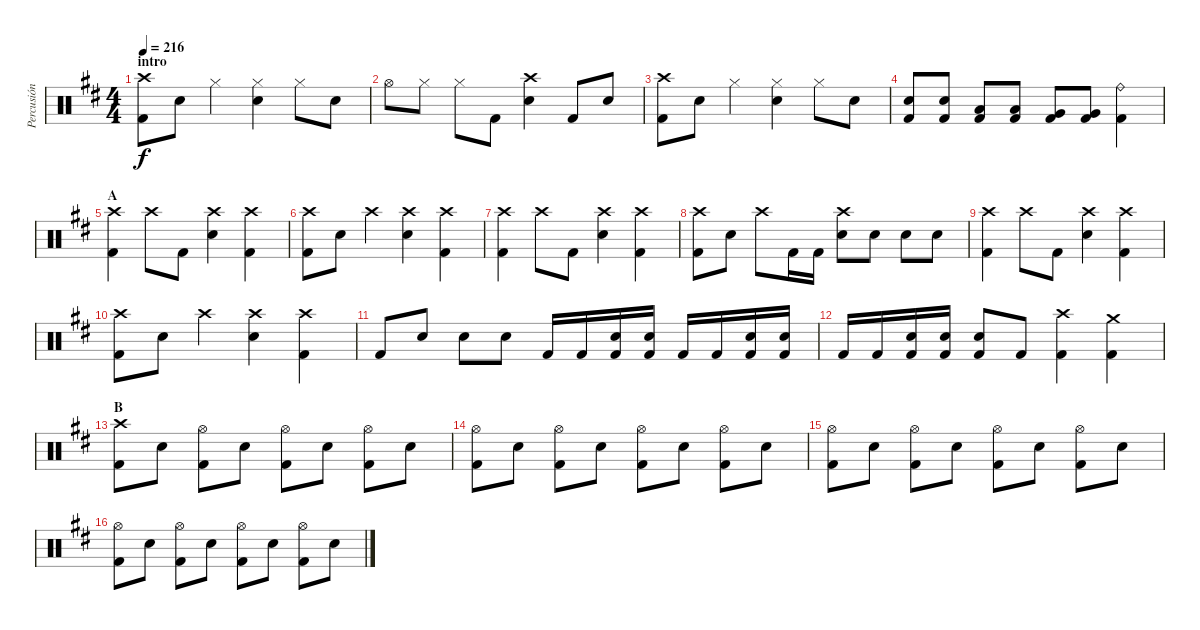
\track ("Percusión" "Percusión") {instrument percussion}
\staff {score}
\articulation defaults
\ts (4 4)
\section ("" "intro")
\tempo 216
\clef neutral
\ks d
("Crash high (hit)" "Kick (hit) 2").8{dy f} "Electric Snare (hit)".8 "Hi-Hat (closed)".4 ("Hi-Hat (closed)" "Electric Snare (hit)").4 "Hi-Hat (closed)".8 "Electric Snare (hit)".8 |
"Hi-Hat (open)".8 "Hi-Hat (closed)".8 "Hi-Hat (closed)".8 "Kick (hit) 2".8 ("Crash high (hit)" "Electric Snare (hit)").4 "Kick (hit) 2".8 "Electric Snare (hit)".8 |
("Crash high (hit)" "Kick (hit) 2").8 "Electric Snare (hit)".8 "Hi-Hat (closed)".4 ("Hi-Hat (closed)" "Electric Snare (hit)").4 "Hi-Hat (closed)".8 "Electric Snare (hit)".8 |
("Electric Snare (hit)" "Kick (hit) 2").8 ("Electric Snare (hit)" "Kick (hit) 2").8 ("Low Tom (hit)" "Kick (hit) 2").8 ("Low Tom (hit)" "Kick (hit) 2").8 ("Very Low Tom (hit)" "Kick (hit) 2").8 ("Very Low Tom (hit)" "Kick (hit) 2").8 ("Ride (bell)" "Kick (hit) 2").4 |
\section ("" "A")
("Crash high (hit)" "Kick (hit) 2").4 "Crash high (hit)".8 "Kick (hit) 2".8 ("Crash high (hit)" "Electric Snare (hit)").4 ("Crash high (hit)" "Kick (hit) 2").4 |
("Crash high (hit)" "Kick (hit) 2").8 "Electric Snare (hit)".8 "Crash high (hit)".4 ("Crash high (hit)" "Electric Snare (hit)").4 ("Crash high (hit)" "Kick (hit) 2").4 |
("Crash high (hit)" "Kick (hit) 2").4 "Crash high (hit)".8 "Kick (hit) 2".8 ("Crash high (hit)" "Electric Snare (hit)").4 ("Crash high (hit)" "Kick (hit) 2").4 |
("Crash high (hit)" "Kick (hit) 2").8 "Electric Snare (hit)".8 "Crash high (hit)".8 "Kick (hit) 2".16 "Kick (hit) 2".16 ("Crash high (hit)" "Electric Snare (hit)").8 "Electric Snare (hit)".8 "Electric Snare (hit)".8 "Electric Snare (hit)".8 |
("Crash high (hit)" "Kick (hit) 2").4 "Crash high (hit)".8 "Kick (hit) 2".8 ("Crash high (hit)" "Electric Snare (hit)").4 ("Crash high (hit)" "Kick (hit) 2").4 |
("Crash high (hit)" "Kick (hit) 2").8 "Electric Snare (hit)".8 "Crash high (hit)".4 ("Crash high (hit)" "Electric Snare (hit)").4 ("Crash high (hit)" "Kick (hit) 2").4 |
"Kick (hit) 2".8 "Electric Snare (hit)".8 "Electric Snare (hit)".8 "Electric Snare (hit)".8 "Kick (hit) 2".16 "Kick (hit) 2".16 ("Electric Snare (hit)" "Kick (hit) 2").16 ("Electric Snare (hit)" "Kick (hit) 2").16 "Kick (hit) 2".16 "Kick (hit) 2".16 ("Electric Snare (hit)" "Kick (hit) 2").16 ("Electric Snare (hit)" "Kick (hit) 2").16 |
"Kick (hit) 2".16 "Kick (hit) 2".16 ("Electric Snare (hit)" "Kick (hit) 2").16 ("Electric Snare (hit)" "Kick (hit) 2").16 ("Electric Snare (hit)" "Kick (hit) 2").8 "Kick (hit) 2".8 ("Crash high (hit)" "Kick (hit) 2").4 ("Crash medium (hit)" "Kick (hit) 2").4 |
\section ("" "B")
("Crash high (hit)" "Kick (hit) 2").8 "Electric Snare (hit)".8 ("Hi-Hat (open)" "Kick (hit) 2").8 "Electric Snare (hit)".8 ("Hi-Hat (open)" "Kick (hit) 2").8 "Electric Snare (hit)".8 ("Hi-Hat (open)" "Kick (hit) 2").8 "Electric Snare (hit)".8 |
("Hi-Hat (open)" "Kick (hit) 2").8 "Electric Snare (hit)".8 ("Hi-Hat (open)" "Kick (hit) 2").8 "Electric Snare (hit)".8 ("Hi-Hat (open)" "Kick (hit) 2").8 "Electric Snare (hit)".8 ("Hi-Hat (open)" "Kick (hit) 2").8 "Electric Snare (hit)".8 |
("Hi-Hat (open)" "Kick (hit) 2").8 "Electric Snare (hit)".8 ("Hi-Hat (open)" "Kick (hit) 2").8 "Electric Snare (hit)".8 ("Hi-Hat (open)" "Kick (hit) 2").8 "Electric Snare (hit)".8 ("Hi-Hat (open)" "Kick (hit) 2").8 "Electric Snare (hit)".8 |
("Hi-Hat (open)" "Kick (hit) 2").8 "Electric Snare (hit)".8 ("Hi-Hat (open)" "Kick (hit) 2").8 "Electric Snare (hit)".8 ("Hi-Hat (open)" "Kick (hit) 2").8 "Electric Snare (hit)".8 ("Hi-Hat (open)" "Kick (hit) 2").8 "Electric Snare (hit)".8
